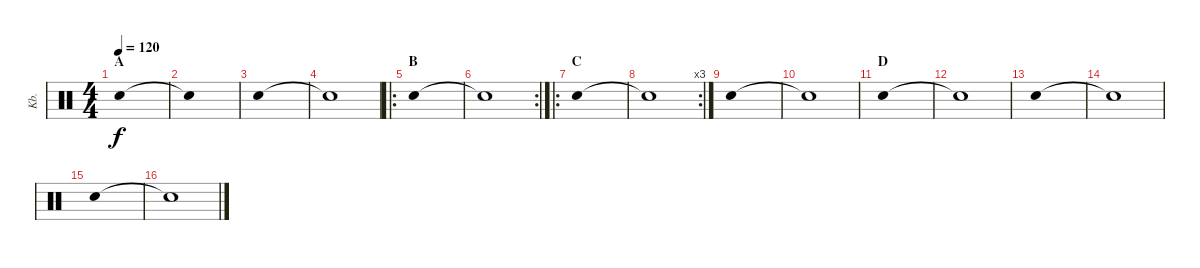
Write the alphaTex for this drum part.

\track ("Kb." "Kb.") {instrument percussion}
\staff {score}
\articulation defaults
\ts (4 4)
\section ("" "A")
\tempo 120
\clef neutral
\ks c "Metronome (bell)".1{dy f}
|
"Metronome (bell)"{t}.1 |
"Metronome (bell)".1 |
"Snare (hit)"{t}.1 |
\ro
\section ("" "B")
"Metronome (bell)".1 |
\rc 2 "Snare (hit)"{t}.1
|
\ro
\section ("" "C")
"Metronome (bell)".1 |
\rc 3 "Snare (hit)"{t}.1
|
"Metronome (bell)".1 |
"Snare (hit)"{t}.1 |
\section ("" "D")
"Metronome (bell)".1 |
"Snare (hit)"{t}.1 |
"Metronome (bell)".1 |
"Snare (hit)"{t}.1 |
"Metronome (bell)".1 |
"Snare (hit)"{t}.1
